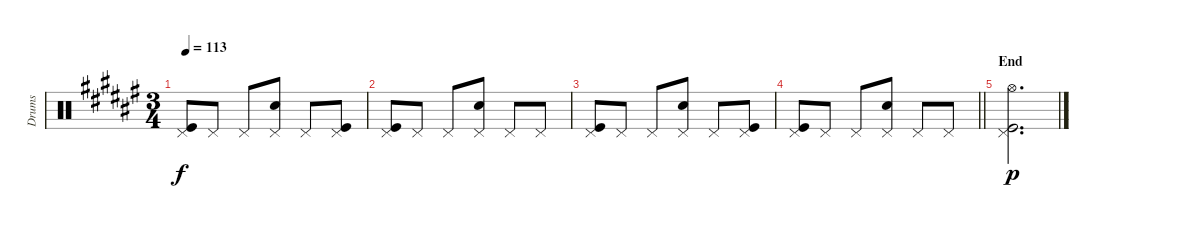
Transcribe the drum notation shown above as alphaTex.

\track ("Drums" "Drums") {instrument percussion}
\staff {score}
\articulation defaults
\ts (3 4)
\tempo 113
\clef neutral
\ks f#
("Pedal Hi-Hat (hit)" "Kick (hit)").8{dy f} "Pedal Hi-Hat (hit)".8 "Pedal Hi-Hat (hit)".8 ("Pedal Hi-Hat (hit)" "Snare (hit) 2").8 "Pedal Hi-Hat (hit)".8 ("Pedal Hi-Hat (hit)" "Kick (hit)").8 |
("Pedal Hi-Hat (hit)" "Kick (hit)").8 "Pedal Hi-Hat (hit)".8 "Pedal Hi-Hat (hit)".8 ("Pedal Hi-Hat (hit)" "Snare (hit) 2").8 "Pedal Hi-Hat (hit)".8 "Pedal Hi-Hat (hit)".8 |
("Pedal Hi-Hat (hit)" "Kick (hit)").8 "Pedal Hi-Hat (hit)".8 "Pedal Hi-Hat (hit)".8 ("Pedal Hi-Hat (hit)" "Snare (hit) 2").8 "Pedal Hi-Hat (hit)".8 ("Pedal Hi-Hat (hit)" "Kick (hit)").8 |
\barLineRight lightlight
("Pedal Hi-Hat (hit)" "Kick (hit)").8 "Pedal Hi-Hat (hit)".8 "Pedal Hi-Hat (hit)".8 ("Pedal Hi-Hat (hit)" "Snare (hit) 2").8 "Pedal Hi-Hat (hit)".8 "Pedal Hi-Hat (hit)".8 |
\section ("" "End")
("Pedal Hi-Hat (hit)" "Hi-Hat (open)" "Kick (hit)").2{d dy p}
